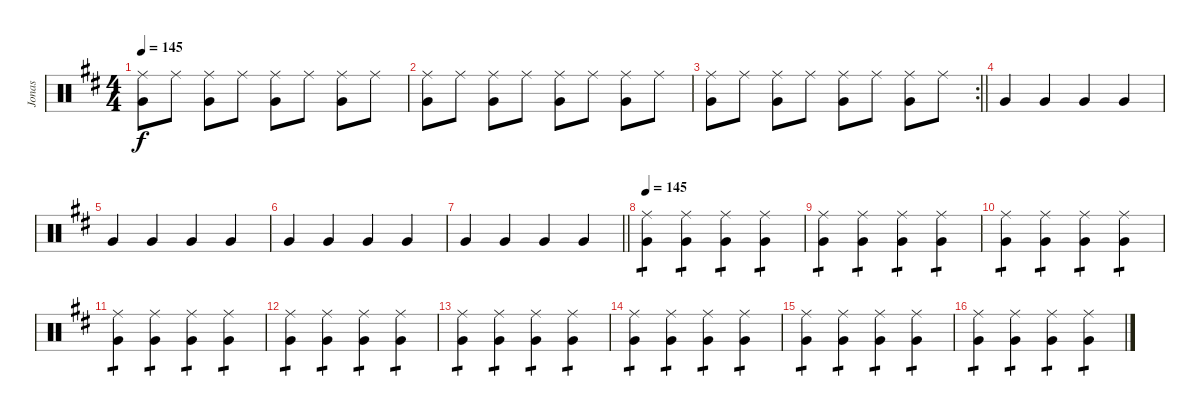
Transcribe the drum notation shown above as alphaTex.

\track ("Jonas" "Jonas") {instrument percussion}
\staff {score}
\articulation defaults
\ts (4 4)
\tempo 145
\clef neutral
\ks d
("Very Low Tom (hit)" "Ride (middle)").8{dy f} "Ride (middle)".8 ("Very Low Tom (hit)" "Ride (middle)").8 "Ride (middle)".8 ("Very Low Tom (hit)" "Ride (middle)").8 "Ride (middle)".8 ("Very Low Tom (hit)" "Ride (middle)").8 "Ride (middle)".8 |
("Very Low Tom (hit)" "Ride (middle)").8 "Ride (middle)".8 ("Very Low Tom (hit)" "Ride (middle)").8 "Ride (middle)".8 ("Very Low Tom (hit)" "Ride (middle)").8 "Ride (middle)".8 ("Very Low Tom (hit)" "Ride (middle)").8 "Ride (middle)".8 |
\rc 2
\barLineRight lightlight
("Very Low Tom (hit)" "Ride (middle)").8 "Ride (middle)".8 ("Very Low Tom (hit)" "Ride (middle)").8 "Ride (middle)".8 ("Very Low Tom (hit)" "Ride (middle)").8 "Ride (middle)".8 ("Very Low Tom (hit)" "Ride (middle)").8 "Ride (middle)".8 |
"Very Low Tom (hit)".4 "Very Low Tom (hit)".4 "Very Low Tom (hit)".4 "Very Low Tom (hit)".4 |
"Very Low Tom (hit)".4 "Very Low Tom (hit)".4 "Very Low Tom (hit)".4 "Very Low Tom (hit)".4 |
"Very Low Tom (hit)".4 "Very Low Tom (hit)".4 "Very Low Tom (hit)".4 "Very Low Tom (hit)".4 |
\barLineRight lightlight "Very Low Tom (hit)".4 "Very Low Tom (hit)".4 "Very Low Tom (hit)".4 "Very Low Tom (hit)".4
|
\tempo 145
("Very Low Tom (hit)" "Ride (middle)").4{tp 1} ("Very Low Tom (hit)" "Ride (middle)").4{tp 1} ("Very Low Tom (hit)" "Ride (middle)").4{tp 1} ("Very Low Tom (hit)" "Ride (middle)").4{tp 1} |
("Very Low Tom (hit)" "Ride (middle)").4{tp 1} ("Very Low Tom (hit)" "Ride (middle)").4{tp 1} ("Very Low Tom (hit)" "Ride (middle)").4{tp 1} ("Very Low Tom (hit)" "Ride (middle)").4{tp 1} |
("Very Low Tom (hit)" "Ride (middle)").4{tp 1} ("Very Low Tom (hit)" "Ride (middle)").4{tp 1} ("Very Low Tom (hit)" "Ride (middle)").4{tp 1} ("Very Low Tom (hit)" "Ride (middle)").4{tp 1} |
("Very Low Tom (hit)" "Ride (middle)").4{tp 1} ("Very Low Tom (hit)" "Ride (middle)").4{tp 1} ("Very Low Tom (hit)" "Ride (middle)").4{tp 1} ("Very Low Tom (hit)" "Ride (middle)").4{tp 1} |
("Very Low Tom (hit)" "Ride (middle)").4{tp 1} ("Very Low Tom (hit)" "Ride (middle)").4{tp 1} ("Very Low Tom (hit)" "Ride (middle)").4{tp 1} ("Very Low Tom (hit)" "Ride (middle)").4{tp 1} |
("Very Low Tom (hit)" "Ride (middle)").4{tp 1} ("Very Low Tom (hit)" "Ride (middle)").4{tp 1} ("Very Low Tom (hit)" "Ride (middle)").4{tp 1} ("Very Low Tom (hit)" "Ride (middle)").4{tp 1} |
("Very Low Tom (hit)" "Ride (middle)").4{tp 1} ("Very Low Tom (hit)" "Ride (middle)").4{tp 1} ("Very Low Tom (hit)" "Ride (middle)").4{tp 1} ("Very Low Tom (hit)" "Ride (middle)").4{tp 1} |
("Very Low Tom (hit)" "Ride (middle)").4{tp 1} ("Very Low Tom (hit)" "Ride (middle)").4{tp 1} ("Very Low Tom (hit)" "Ride (middle)").4{tp 1} ("Very Low Tom (hit)" "Ride (middle)").4{tp 1} |
("Very Low Tom (hit)" "Ride (middle)").4{tp 1} ("Very Low Tom (hit)" "Ride (middle)").4{tp 1} ("Very Low Tom (hit)" "Ride (middle)").4{tp 1} ("Very Low Tom (hit)" "Ride (middle)").4{tp 1}
